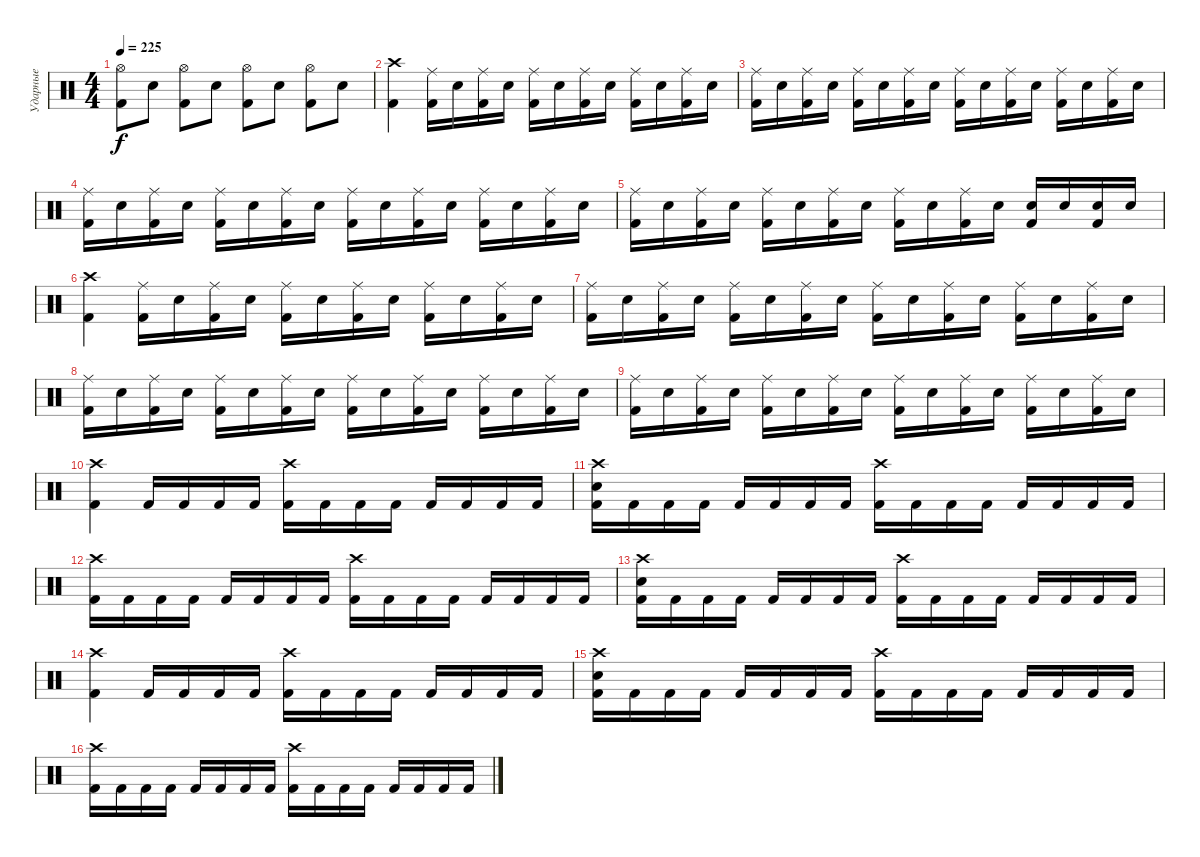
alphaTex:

\track ("Ударные" "Ударные") {instrument percussion}
\staff {score}
\articulation defaults
\ts (4 4)
\tempo 225
\clef neutral
\ks c
("Hi-Hat (open)" "Kick (hit) 2").8{dy f} "Electric Snare (hit)".8 ("Hi-Hat (open)" "Kick (hit) 2").8 "Electric Snare (hit)".8 ("Hi-Hat (open)" "Kick (hit) 2").8 "Electric Snare (hit)".8 ("Hi-Hat (open)" "Kick (hit) 2").8 "Electric Snare (hit)".8 |
("Crash high (hit)" "Kick (hit) 2").4 ("Ride (middle)" "Kick (hit) 2").16 "Electric Snare (hit)".16 ("Ride (middle)" "Kick (hit) 2").16 "Electric Snare (hit)".16 ("Ride (middle)" "Kick (hit) 2").16 "Electric Snare (hit)".16 ("Ride (middle)" "Kick (hit) 2").16 "Electric Snare (hit)".16 ("Ride (middle)" "Kick (hit) 2").16 "Electric Snare (hit)".16 ("Ride (middle)" "Kick (hit) 2").16 "Electric Snare (hit)".16 |
("Ride (middle)" "Kick (hit) 2").16 "Electric Snare (hit)".16 ("Ride (middle)" "Kick (hit) 2").16 "Electric Snare (hit)".16 ("Ride (middle)" "Kick (hit) 2").16 "Electric Snare (hit)".16 ("Ride (middle)" "Kick (hit) 2").16 "Electric Snare (hit)".16 ("Ride (middle)" "Kick (hit) 2").16 "Electric Snare (hit)".16 ("Ride (middle)" "Kick (hit) 2").16 "Electric Snare (hit)".16 ("Ride (middle)" "Kick (hit) 2").16 "Electric Snare (hit)".16 ("Ride (middle)" "Kick (hit) 2").16 "Electric Snare (hit)".16 |
("Ride (middle)" "Kick (hit) 2").16 "Electric Snare (hit)".16 ("Ride (middle)" "Kick (hit) 2").16 "Electric Snare (hit)".16 ("Ride (middle)" "Kick (hit) 2").16 "Electric Snare (hit)".16 ("Ride (middle)" "Kick (hit) 2").16 "Electric Snare (hit)".16 ("Ride (middle)" "Kick (hit) 2").16 "Electric Snare (hit)".16 ("Ride (middle)" "Kick (hit) 2").16 "Electric Snare (hit)".16 ("Ride (middle)" "Kick (hit) 2").16 "Electric Snare (hit)".16 ("Ride (middle)" "Kick (hit) 2").16 "Electric Snare (hit)".16 |
("Ride (middle)" "Kick (hit) 2").16 "Electric Snare (hit)".16 ("Ride (middle)" "Kick (hit) 2").16 "Electric Snare (hit)".16 ("Ride (middle)" "Kick (hit) 2").16 "Electric Snare (hit)".16 ("Ride (middle)" "Kick (hit) 2").16 "Electric Snare (hit)".16 ("Ride (middle)" "Kick (hit) 2").16 "Electric Snare (hit)".16 ("Ride (middle)" "Kick (hit) 2").16 "Electric Snare (hit)".16 ("Electric Snare (hit)" "Kick (hit) 2").16 "Electric Snare (hit)".16 ("Electric Snare (hit)" "Kick (hit) 2").16 "Electric Snare (hit)".16 |
("Crash high (hit)" "Kick (hit) 2").4 ("Ride (middle)" "Kick (hit) 2").16 "Electric Snare (hit)".16 ("Ride (middle)" "Kick (hit) 2").16 "Electric Snare (hit)".16 ("Ride (middle)" "Kick (hit) 2").16 "Electric Snare (hit)".16 ("Ride (middle)" "Kick (hit) 2").16 "Electric Snare (hit)".16 ("Ride (middle)" "Kick (hit) 2").16 "Electric Snare (hit)".16 ("Ride (middle)" "Kick (hit) 2").16 "Electric Snare (hit)".16 |
("Ride (middle)" "Kick (hit) 2").16 "Electric Snare (hit)".16 ("Ride (middle)" "Kick (hit) 2").16 "Electric Snare (hit)".16 ("Ride (middle)" "Kick (hit) 2").16 "Electric Snare (hit)".16 ("Ride (middle)" "Kick (hit) 2").16 "Electric Snare (hit)".16 ("Ride (middle)" "Kick (hit) 2").16 "Electric Snare (hit)".16 ("Ride (middle)" "Kick (hit) 2").16 "Electric Snare (hit)".16 ("Ride (middle)" "Kick (hit) 2").16 "Electric Snare (hit)".16 ("Ride (middle)" "Kick (hit) 2").16 "Electric Snare (hit)".16 |
("Ride (middle)" "Kick (hit) 2").16 "Electric Snare (hit)".16 ("Ride (middle)" "Kick (hit) 2").16 "Electric Snare (hit)".16 ("Ride (middle)" "Kick (hit) 2").16 "Electric Snare (hit)".16 ("Ride (middle)" "Kick (hit) 2").16 "Electric Snare (hit)".16 ("Ride (middle)" "Kick (hit) 2").16 "Electric Snare (hit)".16 ("Ride (middle)" "Kick (hit) 2").16 "Electric Snare (hit)".16 ("Ride (middle)" "Kick (hit) 2").16 "Electric Snare (hit)".16 ("Ride (middle)" "Kick (hit) 2").16 "Electric Snare (hit)".16 |
("Ride (middle)" "Kick (hit) 2").16 "Electric Snare (hit)".16 ("Ride (middle)" "Kick (hit) 2").16 "Electric Snare (hit)".16 ("Ride (middle)" "Kick (hit) 2").16 "Electric Snare (hit)".16 ("Ride (middle)" "Kick (hit) 2").16 "Electric Snare (hit)".16 ("Ride (middle)" "Kick (hit) 2").16 "Electric Snare (hit)".16 ("Ride (middle)" "Kick (hit) 2").16 "Electric Snare (hit)".16 ("Ride (middle)" "Kick (hit) 2").16 "Electric Snare (hit)".16 ("Ride (middle)" "Kick (hit) 2").16 "Electric Snare (hit)".16 |
("Crash high (hit)" "Kick (hit) 2").4 "Kick (hit) 2".16 "Kick (hit) 2".16 "Kick (hit) 2".16 "Kick (hit) 2".16 ("Crash high (hit)" "Kick (hit) 2").16 "Kick (hit) 2".16 "Kick (hit) 2".16 "Kick (hit) 2".16 "Kick (hit) 2".16 "Kick (hit) 2".16 "Kick (hit) 2".16 "Kick (hit) 2".16 |
("Crash high (hit)" "Electric Snare (hit)" "Kick (hit) 2").16 "Kick (hit) 2".16 "Kick (hit) 2".16 "Kick (hit) 2".16 "Kick (hit) 2".16 "Kick (hit) 2".16 "Kick (hit) 2".16 "Kick (hit) 2".16 ("Crash high (hit)" "Kick (hit) 2").16 "Kick (hit) 2".16 "Kick (hit) 2".16 "Kick (hit) 2".16 "Kick (hit) 2".16 "Kick (hit) 2".16 "Kick (hit) 2".16 "Kick (hit) 2".16 |
("Crash high (hit)" "Kick (hit) 2").16 "Kick (hit) 2".16 "Kick (hit) 2".16 "Kick (hit) 2".16 "Kick (hit) 2".16 "Kick (hit) 2".16 "Kick (hit) 2".16 "Kick (hit) 2".16 ("Crash high (hit)" "Kick (hit) 2").16 "Kick (hit) 2".16 "Kick (hit) 2".16 "Kick (hit) 2".16 "Kick (hit) 2".16 "Kick (hit) 2".16 "Kick (hit) 2".16 "Kick (hit) 2".16 |
("Crash high (hit)" "Electric Snare (hit)" "Kick (hit) 2").16 "Kick (hit) 2".16 "Kick (hit) 2".16 "Kick (hit) 2".16 "Kick (hit) 2".16 "Kick (hit) 2".16 "Kick (hit) 2".16 "Kick (hit) 2".16 ("Crash high (hit)" "Kick (hit) 2").16 "Kick (hit) 2".16 "Kick (hit) 2".16 "Kick (hit) 2".16 "Kick (hit) 2".16 "Kick (hit) 2".16 "Kick (hit) 2".16 "Kick (hit) 2".16 |
("Crash high (hit)" "Kick (hit) 2").4 "Kick (hit) 2".16 "Kick (hit) 2".16 "Kick (hit) 2".16 "Kick (hit) 2".16 ("Crash high (hit)" "Kick (hit) 2").16 "Kick (hit) 2".16 "Kick (hit) 2".16 "Kick (hit) 2".16 "Kick (hit) 2".16 "Kick (hit) 2".16 "Kick (hit) 2".16 "Kick (hit) 2".16 |
("Crash high (hit)" "Electric Snare (hit)" "Kick (hit) 2").16 "Kick (hit) 2".16 "Kick (hit) 2".16 "Kick (hit) 2".16 "Kick (hit) 2".16 "Kick (hit) 2".16 "Kick (hit) 2".16 "Kick (hit) 2".16 ("Crash high (hit)" "Kick (hit) 2").16 "Kick (hit) 2".16 "Kick (hit) 2".16 "Kick (hit) 2".16 "Kick (hit) 2".16 "Kick (hit) 2".16 "Kick (hit) 2".16 "Kick (hit) 2".16 |
("Crash high (hit)" "Kick (hit) 2").16 "Kick (hit) 2".16 "Kick (hit) 2".16 "Kick (hit) 2".16 "Kick (hit) 2".16 "Kick (hit) 2".16 "Kick (hit) 2".16 "Kick (hit) 2".16 ("Crash high (hit)" "Kick (hit) 2").16 "Kick (hit) 2".16 "Kick (hit) 2".16 "Kick (hit) 2".16 "Kick (hit) 2".16 "Kick (hit) 2".16 "Kick (hit) 2".16 "Kick (hit) 2".16
